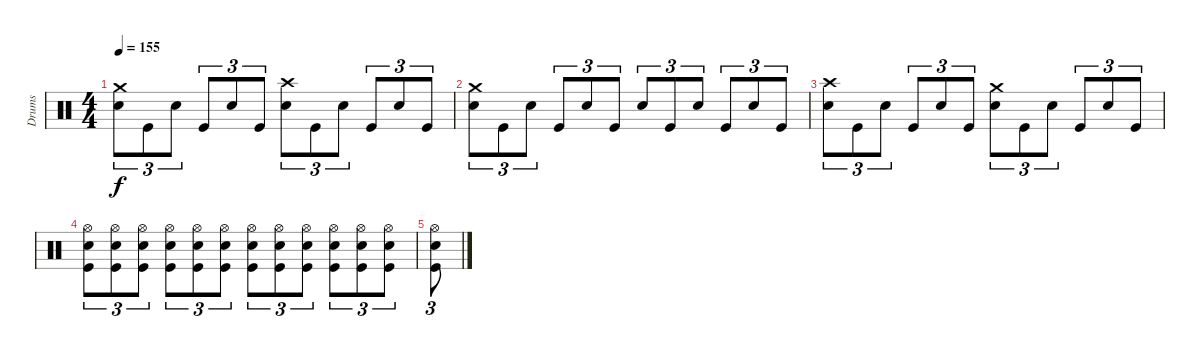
\track ("Drums" "Drums") {instrument percussion}
\staff {score}
\articulation defaults
\ts (4 4)
\tempo 155
\clef neutral
\ks c
("Crash medium (hit)" "Electric Snare (hit)").8{tu (3 2) dy f} "Kick (hit)".8{tu (3 2)} "Electric Snare (hit)".8{tu (3 2)} "Kick (hit)".8{tu (3 2)} "Electric Snare (hit)".8{tu (3 2)} "Kick (hit)".8{tu (3 2)} ("Crash high (hit)" "Electric Snare (hit)").8{tu (3 2)} "Kick (hit)".8{tu (3 2)} "Electric Snare (hit)".8{tu (3 2)} "Kick (hit)".8{tu (3 2)} "Electric Snare (hit)".8{tu (3 2)} "Kick (hit)".8{tu (3 2)} |
("Crash medium (hit)" "Electric Snare (hit)").8{tu (3 2)} "Kick (hit)".8{tu (3 2)} "Electric Snare (hit)".8{tu (3 2)} "Kick (hit)".8{tu (3 2)} "Electric Snare (hit)".8{tu (3 2)} "Kick (hit)".8{tu (3 2)} "Electric Snare (hit)".8{tu (3 2)} "Kick (hit)".8{tu (3 2)} "Electric Snare (hit)".8{tu (3 2)} "Kick (hit)".8{tu (3 2)} "Electric Snare (hit)".8{tu (3 2)} "Kick (hit)".8{tu (3 2)} |
("Crash high (hit)" "Electric Snare (hit)").8{tu (3 2)} "Kick (hit)".8{tu (3 2)} "Electric Snare (hit)".8{tu (3 2)} "Kick (hit)".8{tu (3 2)} "Electric Snare (hit)".8{tu (3 2)} "Kick (hit)".8{tu (3 2)} ("Crash medium (hit)" "Electric Snare (hit)").8{tu (3 2)} "Kick (hit)".8{tu (3 2)} "Electric Snare (hit)".8{tu (3 2)} "Kick (hit)".8{tu (3 2)} "Electric Snare (hit)".8{tu (3 2)} "Kick (hit)".8{tu (3 2)} |
("Hi-Hat (open)" "Electric Snare (hit)" "Kick (hit)").8{tu (3 2)} ("Hi-Hat (open)" "Electric Snare (hit)" "Kick (hit)").8{tu (3 2)} ("Hi-Hat (open)" "Electric Snare (hit)" "Kick (hit)").8{tu (3 2)} ("Hi-Hat (open)" "Electric Snare (hit)" "Kick (hit)").8{tu (3 2)} ("Hi-Hat (open)" "Electric Snare (hit)" "Kick (hit)").8{tu (3 2)} ("Hi-Hat (open)" "Electric Snare (hit)" "Kick (hit)").8{tu (3 2)} ("Hi-Hat (open)" "Electric Snare (hit)" "Kick (hit)").8{tu (3 2)} ("Hi-Hat (open)" "Electric Snare (hit)" "Kick (hit)").8{tu (3 2)} ("Hi-Hat (open)" "Electric Snare (hit)" "Kick (hit)").8{tu (3 2)} ("Hi-Hat (open)" "Electric Snare (hit)" "Kick (hit)").8{tu (3 2)} ("Hi-Hat (open)" "Electric Snare (hit)" "Kick (hit)").8{tu (3 2)} ("Hi-Hat (open)" "Electric Snare (hit)" "Kick (hit)").8{tu (3 2)} |
("Hi-Hat (open)" "Electric Snare (hit)" "Kick (hit)").8{tu (3 2)}
